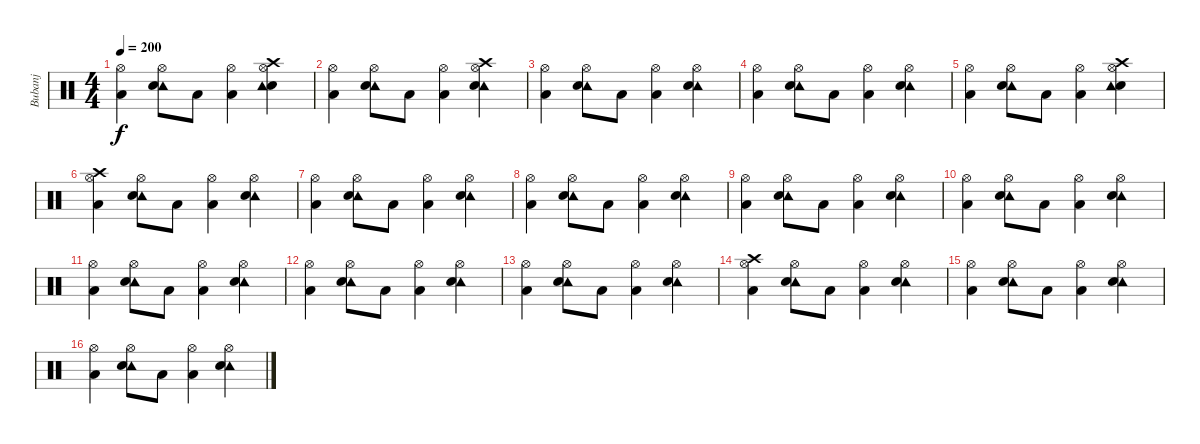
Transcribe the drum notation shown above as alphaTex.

\track ("Bubanj" "Bubanj") {instrument percussion}
\staff {score}
\articulation defaults
\ts (4 4)
\tempo 200
\clef neutral
\ks c
("Hi-Hat (open)" "Low Tom (hit)").4{dy f} ("Hi-Hat (open)" "Tambourine (hit)" "Snare (hit) 2").8 "Low Tom (hit)".8 ("Hi-Hat (open)" "Low Tom (hit)").4 ("Hi-Hat (open)" "Crash high (hit)" "Snare (hit) 2" "Tambourine (hit)").4 |
("Hi-Hat (open)" "Low Tom (hit)").4 ("Hi-Hat (open)" "Tambourine (hit)" "Snare (hit) 2").8 "Low Tom (hit)".8 ("Hi-Hat (open)" "Low Tom (hit)").4 ("Hi-Hat (open)" "Tambourine (hit)" "Snare (hit) 2" "Crash high (hit)").4 |
("Hi-Hat (open)" "Low Tom (hit)").4 ("Hi-Hat (open)" "Tambourine (hit)" "Snare (hit) 2").8 "Low Tom (hit)".8 ("Hi-Hat (open)" "Low Tom (hit)").4 ("Hi-Hat (open)" "Tambourine (hit)" "Snare (hit) 2").4 |
("Hi-Hat (open)" "Low Tom (hit)").4 ("Hi-Hat (open)" "Tambourine (hit)" "Snare (hit) 2").8 "Low Tom (hit)".8 ("Hi-Hat (open)" "Low Tom (hit)").4 ("Hi-Hat (open)" "Tambourine (hit)" "Snare (hit) 2").4 |
("Hi-Hat (open)" "Low Tom (hit)").4 ("Hi-Hat (open)" "Tambourine (hit)" "Snare (hit) 2").8 "Low Tom (hit)".8 ("Hi-Hat (open)" "Low Tom (hit)").4 ("Hi-Hat (open)" "Crash high (hit)" "Snare (hit) 2" "Tambourine (hit)").4 |
("Hi-Hat (open)" "Crash high (hit)" "Low Tom (hit)").4 ("Hi-Hat (open)" "Tambourine (hit)" "Snare (hit) 2").8 "Low Tom (hit)".8 ("Hi-Hat (open)" "Low Tom (hit)").4 ("Hi-Hat (open)" "Tambourine (hit)" "Snare (hit) 2").4 |
("Hi-Hat (open)" "Low Tom (hit)").4 ("Hi-Hat (open)" "Tambourine (hit)" "Snare (hit) 2").8 "Low Tom (hit)".8 ("Hi-Hat (open)" "Low Tom (hit)").4 ("Hi-Hat (open)" "Tambourine (hit)" "Snare (hit) 2").4 |
("Hi-Hat (open)" "Low Tom (hit)").4 ("Hi-Hat (open)" "Tambourine (hit)" "Snare (hit) 2").8 "Low Tom (hit)".8 ("Hi-Hat (open)" "Low Tom (hit)").4 ("Hi-Hat (open)" "Tambourine (hit)" "Snare (hit) 2").4 |
("Hi-Hat (open)" "Low Tom (hit)").4 ("Hi-Hat (open)" "Tambourine (hit)" "Snare (hit) 2").8 "Low Tom (hit)".8 ("Hi-Hat (open)" "Low Tom (hit)").4 ("Hi-Hat (open)" "Tambourine (hit)" "Snare (hit) 2").4 |
("Hi-Hat (open)" "Low Tom (hit)").4 ("Hi-Hat (open)" "Tambourine (hit)" "Snare (hit) 2").8 "Low Tom (hit)".8 ("Hi-Hat (open)" "Low Tom (hit)").4 ("Hi-Hat (open)" "Tambourine (hit)" "Snare (hit) 2").4 |
("Hi-Hat (open)" "Low Tom (hit)").4 ("Hi-Hat (open)" "Tambourine (hit)" "Snare (hit) 2").8 "Low Tom (hit)".8 ("Hi-Hat (open)" "Low Tom (hit)").4 ("Hi-Hat (open)" "Tambourine (hit)" "Snare (hit) 2").4 |
("Hi-Hat (open)" "Low Tom (hit)").4 ("Hi-Hat (open)" "Tambourine (hit)" "Snare (hit) 2").8 "Low Tom (hit)".8 ("Hi-Hat (open)" "Low Tom (hit)").4 ("Hi-Hat (open)" "Tambourine (hit)" "Snare (hit) 2").4 |
("Hi-Hat (open)" "Low Tom (hit)").4 ("Hi-Hat (open)" "Tambourine (hit)" "Snare (hit) 2").8 "Low Tom (hit)".8 ("Hi-Hat (open)" "Low Tom (hit)").4 ("Hi-Hat (open)" "Tambourine (hit)" "Snare (hit) 2").4 |
("Hi-Hat (open)" "Crash high (hit)" "Low Tom (hit)").4 ("Hi-Hat (open)" "Tambourine (hit)" "Snare (hit) 2").8 "Low Tom (hit)".8 ("Hi-Hat (open)" "Low Tom (hit)").4 ("Hi-Hat (open)" "Tambourine (hit)" "Snare (hit) 2").4 |
("Hi-Hat (open)" "Low Tom (hit)").4 ("Hi-Hat (open)" "Tambourine (hit)" "Snare (hit) 2").8 "Low Tom (hit)".8 ("Hi-Hat (open)" "Low Tom (hit)").4 ("Hi-Hat (open)" "Tambourine (hit)" "Snare (hit) 2").4 |
("Hi-Hat (open)" "Low Tom (hit)").4 ("Hi-Hat (open)" "Tambourine (hit)" "Snare (hit) 2").8 "Low Tom (hit)".8 ("Hi-Hat (open)" "Low Tom (hit)").4 ("Hi-Hat (open)" "Tambourine (hit)" "Snare (hit) 2").4
